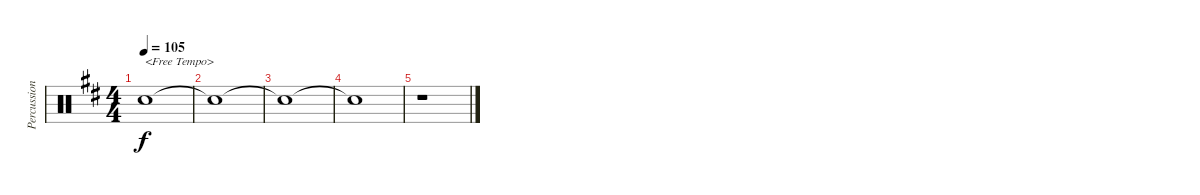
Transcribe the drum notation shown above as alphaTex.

\track ("Percussions" "Percussion") {instrument percussion}
\staff {score}
\articulation defaults
\ts (4 4)
\tempo 105
\clef neutral
\ks d "Snare (hit)"{t}.1{txt "<Free Tempo>" dy f}
|
"Snare (hit)"{t}.1 |
"Snare (hit)"{t}.1 |
"Snare (hit)"{t}.1 |
r.1
